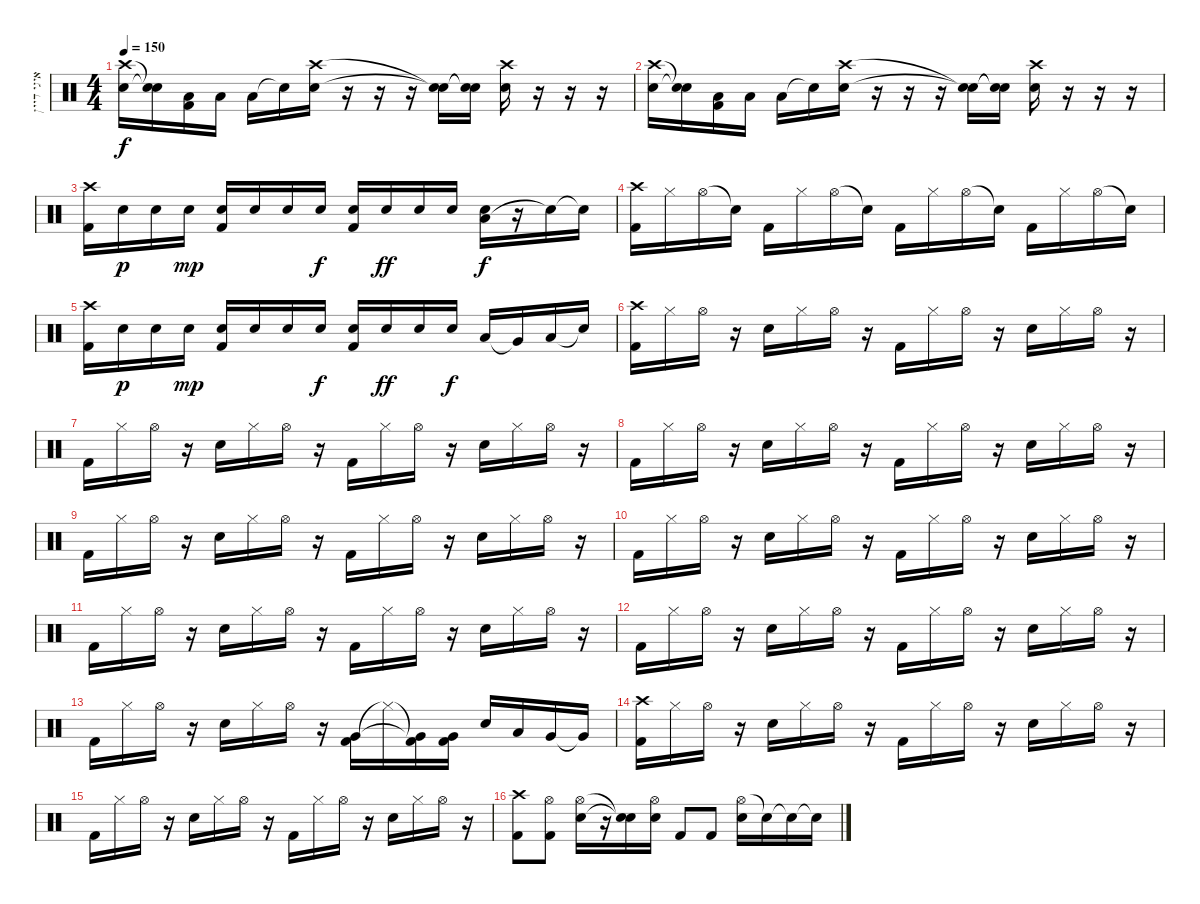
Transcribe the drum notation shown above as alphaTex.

\track ("איגי דיין" "איגי דיין") {instrument percussion}
\staff {score}
\articulation defaults
\ts (4 4)
\tempo 150
\clef neutral
\ks c
("Crash high (hit)" "Electric Snare (hit)").16{dy f} ("Snare (hit)"{t} "Snare (hit)"{t}).16 ("Low Tom (hit)" "Kick (hit) 2").16 "Low Floor Tom (hit)".16 "Low Floor Tom (hit)".16 "Snare (hit)"{t}.16 ("Crash high (hit)" "Electric Snare (hit)").16 r.16 r.16 r.16 ("Snare (hit)"{t} "Snare (hit)"{t}).16 ("Snare (hit)"{t} "Snare (hit)"{t}).16 ("Crash high (hit)" "Electric Snare (hit)").16 r.16 r.16 r.16 |
("Crash high (hit)" "Electric Snare (hit)").16 ("Snare (hit)"{t} "Snare (hit)"{t}).16 ("Low Tom (hit)" "Kick (hit) 2").16 "Low Floor Tom (hit)".16 "Low Floor Tom (hit)".16 "Snare (hit)"{t}.16 ("Crash high (hit)" "Electric Snare (hit)").16 r.16 r.16 r.16 ("Snare (hit)"{t} "Snare (hit)"{t}).16 ("Snare (hit)"{t} "Snare (hit)"{t}).16 ("Crash high (hit)" "Electric Snare (hit)").16 r.16 r.16 r.16 |
("Crash high (hit)" "Kick (hit) 2").16 "Electric Snare (hit)".16{dy p} "Electric Snare (hit)".16 "Electric Snare (hit)".16{dy mp} ("Electric Snare (hit)" "Kick (hit) 2").16 "Electric Snare (hit)".16 "Electric Snare (hit)".16 "Electric Snare (hit)".16{dy f} ("Electric Snare (hit)" "Kick (hit) 2").16 "Electric Snare (hit)".16{dy ff} "Electric Snare (hit)".16 "Electric Snare (hit)".16 ("Low Floor Tom (hit)" "Electric Snare (hit)").16{dy f} r.16 "Snare (hit)"{t}.16 "Snare (hit)"{t}.16 |
("Crash high (hit)" "Kick (hit) 2").16 "Hi-Hat (closed)".16 "Hi-Hat (open)".16 "Snare (hit)"{t}.16 "Kick (hit) 2".16 "Hi-Hat (closed)".16 "Hi-Hat (open)".16 "Snare (hit)"{t}.16 "Kick (hit) 2".16 "Hi-Hat (closed)".16 "Hi-Hat (open)".16 "Snare (hit)"{t}.16 "Kick (hit) 2".16 "Hi-Hat (closed)".16 "Hi-Hat (open)".16 "Snare (hit)"{t}.16 |
("Crash high (hit)" "Kick (hit) 2").16 "Electric Snare (hit)".16{dy p} "Electric Snare (hit)".16 "Electric Snare (hit)".16{dy mp} ("Electric Snare (hit)" "Kick (hit) 2").16 "Electric Snare (hit)".16 "Electric Snare (hit)".16 "Electric Snare (hit)".16{dy f} ("Electric Snare (hit)" "Kick (hit) 2").16 "Electric Snare (hit)".16{dy ff} "Electric Snare (hit)".16 "Electric Snare (hit)".16{dy f} "Low Tom (hit)".16 "Very Low Tom (hit)"{t}.16 "Low Floor Tom (hit)".16 "Snare (hit)"{t}.16 |
("Crash high (hit)" "Kick (hit) 2").16 "Hi-Hat (closed)".16 "Hi-Hat (open)".16 r.16 "Electric Snare (hit)".16 "Hi-Hat (closed)".16 "Hi-Hat (open)".16 r.16 "Kick (hit) 2".16 "Hi-Hat (closed)".16 "Hi-Hat (open)".16 r.16 "Electric Snare (hit)".16 "Hi-Hat (closed)".16 "Hi-Hat (open)".16 r.16 |
"Kick (hit) 2".16 "Hi-Hat (closed)".16 "Hi-Hat (open)".16 r.16 "Electric Snare (hit)".16 "Hi-Hat (closed)".16 "Hi-Hat (open)".16 r.16 "Kick (hit) 2".16 "Hi-Hat (closed)".16 "Hi-Hat (open)".16 r.16 "Electric Snare (hit)".16 "Hi-Hat (closed)".16 "Hi-Hat (open)".16 r.16 |
"Kick (hit) 2".16 "Hi-Hat (closed)".16 "Hi-Hat (open)".16 r.16 "Electric Snare (hit)".16 "Hi-Hat (closed)".16 "Hi-Hat (open)".16 r.16 "Kick (hit) 2".16 "Hi-Hat (closed)".16 "Hi-Hat (open)".16 r.16 "Electric Snare (hit)".16 "Hi-Hat (closed)".16 "Hi-Hat (open)".16 r.16 |
"Kick (hit) 2".16 "Hi-Hat (closed)".16 "Hi-Hat (open)".16 r.16 "Electric Snare (hit)".16 "Hi-Hat (closed)".16 "Hi-Hat (open)".16 r.16 "Kick (hit) 2".16 "Hi-Hat (closed)".16 "Hi-Hat (open)".16 r.16 "Electric Snare (hit)".16 "Hi-Hat (closed)".16 "Hi-Hat (open)".16 r.16 |
"Kick (hit) 2".16 "Hi-Hat (closed)".16 "Hi-Hat (open)".16 r.16 "Electric Snare (hit)".16 "Hi-Hat (closed)".16 "Hi-Hat (open)".16 r.16 "Kick (hit) 2".16 "Hi-Hat (closed)".16 "Hi-Hat (open)".16 r.16 "Electric Snare (hit)".16 "Hi-Hat (closed)".16 "Hi-Hat (open)".16 r.16 |
"Kick (hit) 2".16 "Hi-Hat (closed)".16 "Hi-Hat (open)".16 r.16 "Electric Snare (hit)".16 "Hi-Hat (closed)".16 "Hi-Hat (open)".16 r.16 "Kick (hit) 2".16 "Hi-Hat (closed)".16 "Hi-Hat (open)".16 r.16 "Electric Snare (hit)".16 "Hi-Hat (closed)".16 "Hi-Hat (open)".16 r.16 |
"Kick (hit) 2".16 "Hi-Hat (closed)".16 "Hi-Hat (open)".16 r.16 "Electric Snare (hit)".16 "Hi-Hat (closed)".16 "Hi-Hat (open)".16 r.16 "Kick (hit) 2".16 "Hi-Hat (closed)".16 "Hi-Hat (open)".16 r.16 "Electric Snare (hit)".16 "Hi-Hat (closed)".16 "Hi-Hat (open)".16 r.16 |
"Kick (hit) 2".16 "Hi-Hat (closed)".16 "Hi-Hat (open)".16 r.16 "Electric Snare (hit)".16 "Hi-Hat (closed)".16 "Hi-Hat (open)".16 r.16 ("Kick (hit) 2" "Very Low Tom (hit)").16 "Hi-Hat (closed)"{t}.16 ("Kick (hit) 2"{t} "Very Low Tom (hit)"{t}).16 ("Kick (hit) 2" "Very Low Tom (hit)").16 "Electric Snare (hit)".16 "Low Tom (hit)".16 "Very Low Tom (hit)".16 "Very Low Tom (hit)"{t}.16 |
("Crash high (hit)" "Kick (hit) 2").16 "Hi-Hat (closed)".16 "Hi-Hat (open)".16 r.16 "Electric Snare (hit)".16 "Hi-Hat (closed)".16 "Hi-Hat (open)".16 r.16 "Kick (hit) 2".16 "Hi-Hat (closed)".16 "Hi-Hat (open)".16 r.16 "Electric Snare (hit)".16 "Hi-Hat (closed)".16 "Hi-Hat (open)".16 r.16 |
"Kick (hit) 2".16 "Hi-Hat (closed)".16 "Hi-Hat (open)".16 r.16 "Electric Snare (hit)".16 "Hi-Hat (closed)".16 "Hi-Hat (open)".16 r.16 "Kick (hit) 2".16 "Hi-Hat (closed)".16 "Hi-Hat (open)".16 r.16 "Electric Snare (hit)".16 "Hi-Hat (closed)".16 "Hi-Hat (open)".16 r.16 |
("Crash high (hit)" "Kick (hit) 2").8 ("Hi-Hat (open)" "Kick (hit) 2").8 ("Hi-Hat (open)" "Electric Snare (hit)").16 r.16 ("Snare (hit)"{t} "Snare (hit)"{t}).16 ("Hi-Hat (open)" "Electric Snare (hit)").16 "Kick (hit) 2".8 "Kick (hit) 2".8 ("Hi-Hat (open)" "Electric Snare (hit)").16 "Snare (hit)"{t}.16 "Snare (hit)"{t}.16 "Snare (hit)"{t}.16
